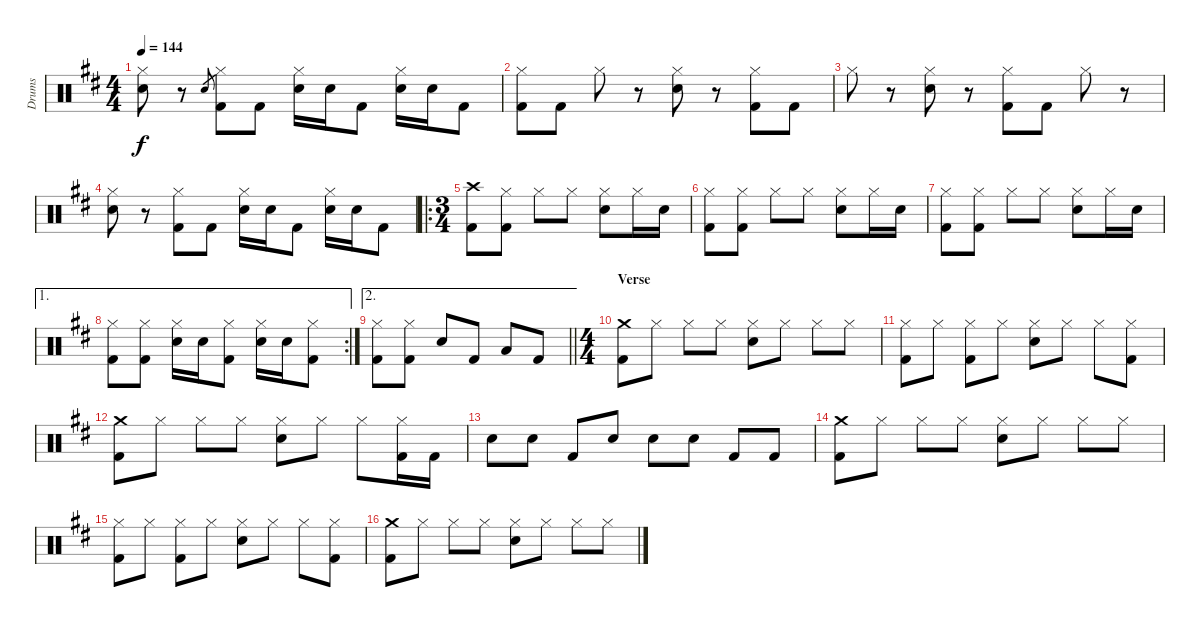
\track ("Drums" "Drums") {instrument percussion}
\staff {score}
\articulation defaults
\ts (4 4)
\tempo 144
\clef neutral
\ks d
("Hi-Hat (closed)" "Snare (hit) 2").8{dy f} r.8 "Snare (hit) 2".8{gr} ("Hi-Hat (closed)" "Kick (hit) 2").8 "Kick (hit) 2".8 ("Hi-Hat (closed)" "Snare (hit) 2").16 "Snare (hit) 2".16 "Kick (hit) 2".8 ("Hi-Hat (closed)" "Snare (hit) 2").16 "Snare (hit) 2".16 "Kick (hit) 2".8 |
("Hi-Hat (closed)" "Kick (hit) 2").8 "Kick (hit) 2".8 "Hi-Hat (closed)".8 r.8 ("Hi-Hat (closed)" "Snare (hit) 2").8 r.8 ("Hi-Hat (closed)" "Kick (hit) 2").8 "Kick (hit) 2".8 |
"Hi-Hat (closed)".8 r.8 ("Hi-Hat (closed)" "Snare (hit) 2").8 r.8 ("Hi-Hat (closed)" "Kick (hit) 2").8 "Kick (hit) 2".8 "Hi-Hat (closed)".8 r.8 |
("Hi-Hat (closed)" "Snare (hit) 2").8 r.8 ("Hi-Hat (closed)" "Kick (hit) 2").8 "Kick (hit) 2".8 ("Hi-Hat (closed)" "Snare (hit) 2").16 "Snare (hit) 2".16 "Kick (hit) 2".8 ("Hi-Hat (closed)" "Snare (hit) 2").16 "Snare (hit) 2".16 "Kick (hit) 2".8 |
\ro
\ts (3 4)
("Crash high (hit)" "Kick (hit) 2").8 ("Hi-Hat (closed)" "Kick (hit) 2").8 "Hi-Hat (closed)".8 "Hi-Hat (closed)".8 ("Hi-Hat (closed)" "Snare (hit) 2").8 "Hi-Hat (closed)".16 "Snare (hit) 2".16 |
("Hi-Hat (closed)" "Kick (hit) 2").8 ("Hi-Hat (closed)" "Kick (hit) 2").8 "Hi-Hat (closed)".8 "Hi-Hat (closed)".8 ("Hi-Hat (closed)" "Snare (hit) 2").8 "Hi-Hat (closed)".16 "Snare (hit) 2".16 |
("Hi-Hat (closed)" "Kick (hit) 2").8 ("Hi-Hat (closed)" "Kick (hit) 2").8 "Hi-Hat (closed)".8 "Hi-Hat (closed)".8 ("Hi-Hat (closed)" "Snare (hit) 2").8 "Hi-Hat (closed)".16 "Snare (hit) 2".16 |
\ae 1
\rc 2
("Hi-Hat (closed)" "Kick (hit) 2").8 ("Hi-Hat (closed)" "Kick (hit) 2").8 ("Hi-Hat (closed)" "Snare (hit) 2").16 "Snare (hit) 2".16 ("Hi-Hat (closed)" "Kick (hit) 2").8 ("Hi-Hat (closed)" "Snare (hit) 2").16 "Snare (hit) 2".16 ("Hi-Hat (closed)" "Kick (hit) 2").8 |
\ae 2
\barLineRight lightlight
("Hi-Hat (closed)" "Kick (hit) 2").8 ("Hi-Hat (closed)" "Kick (hit) 2").8 "Snare (hit) 2".8 "Kick (hit) 2".8 "Low Tom (hit)".8 "Kick (hit) 2".8 |
\ts (4 4)
\section ("" "Verse")
("Crash medium (hit)" "Kick (hit) 2").8 "Hi-Hat (closed)".8 "Hi-Hat (closed)".8 "Hi-Hat (closed)".8 ("Hi-Hat (closed)" "Snare (hit) 2").8 "Hi-Hat (closed)".8 "Hi-Hat (closed)".8 "Hi-Hat (closed)".8 |
("Hi-Hat (closed)" "Kick (hit) 2").8 "Hi-Hat (closed)".8 ("Hi-Hat (closed)" "Kick (hit) 2").8 "Hi-Hat (closed)".8 ("Hi-Hat (closed)" "Snare (hit) 2").8 "Hi-Hat (closed)".8 "Hi-Hat (closed)".8 ("Hi-Hat (closed)" "Kick (hit) 2").8 |
("Crash medium (hit)" "Kick (hit) 2").8 "Hi-Hat (closed)".8 "Hi-Hat (closed)".8 "Hi-Hat (closed)".8 ("Hi-Hat (closed)" "Snare (hit) 2").8 "Hi-Hat (closed)".8 "Hi-Hat (closed)".8 ("Hi-Hat (closed)" "Kick (hit) 2").16 "Kick (hit) 2".16 |
"Snare (hit) 2".8 "Snare (hit) 2".8 "Kick (hit) 2".8 "Snare (hit) 2".8 "Snare (hit) 2".8 "Snare (hit) 2".8 "Kick (hit) 2".8 "Kick (hit) 2".8 |
("Crash medium (hit)" "Kick (hit) 2").8 "Hi-Hat (closed)".8 "Hi-Hat (closed)".8 "Hi-Hat (closed)".8 ("Hi-Hat (closed)" "Snare (hit) 2").8 "Hi-Hat (closed)".8 "Hi-Hat (closed)".8 "Hi-Hat (closed)".8 |
("Hi-Hat (closed)" "Kick (hit) 2").8 "Hi-Hat (closed)".8 ("Hi-Hat (closed)" "Kick (hit) 2").8 "Hi-Hat (closed)".8 ("Hi-Hat (closed)" "Snare (hit) 2").8 "Hi-Hat (closed)".8 "Hi-Hat (closed)".8 ("Hi-Hat (closed)" "Kick (hit) 2").8 |
("Crash medium (hit)" "Kick (hit) 2").8 "Hi-Hat (closed)".8 "Hi-Hat (closed)".8 "Hi-Hat (closed)".8 ("Hi-Hat (closed)" "Snare (hit) 2").8 "Hi-Hat (closed)".8 "Hi-Hat (closed)".8 "Hi-Hat (closed)".8
